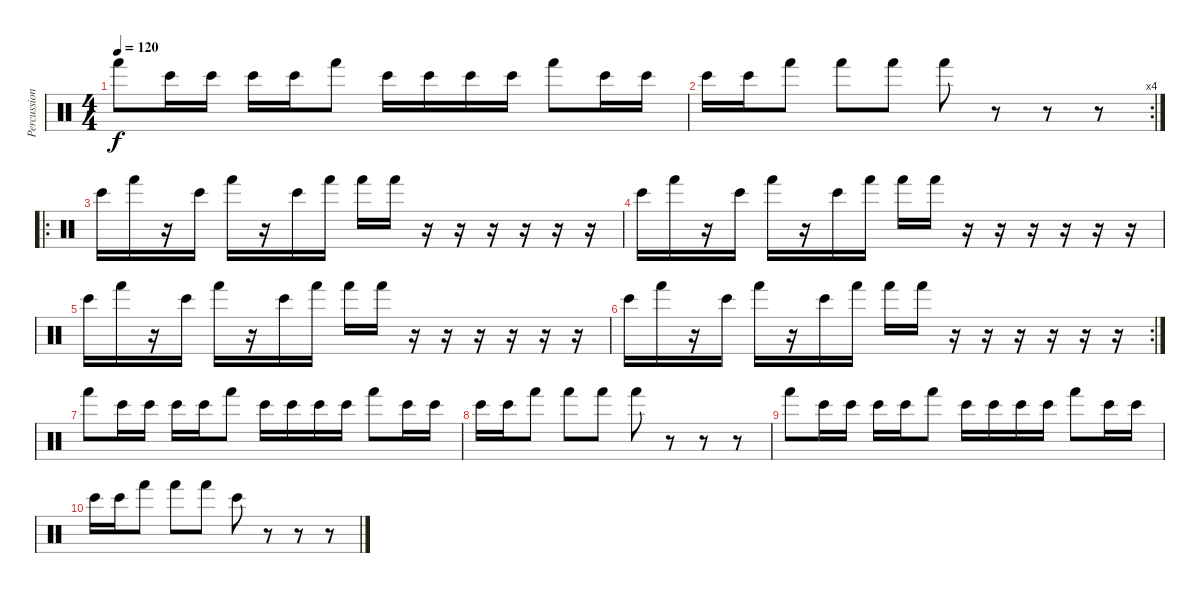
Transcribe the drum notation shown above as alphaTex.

\track ("Percussions" "Percussion") {instrument percussion}
\staff {score}
\articulation defaults
\ts (4 4)
\tempo 120
\clef neutral
\ks c "Hand (hit)".8{dy f} "Bongo High (hit)".16 "Bongo High (hit)".16 "Bongo High (hit)".16 "Bongo High (hit)".16 "Hand (hit)".8 "Bongo High (hit)".16 "Bongo High (hit)".16 "Bongo High (hit)".16 "Bongo High (hit)".16 "Hand (hit)".8 "Bongo High (hit)".16 "Bongo High (hit)".16
|
\rc 4 "Bongo High (hit)".16 "Bongo High (hit)".16 "Hand (hit)".8 "Hand (hit)".8 "Hand (hit)".8 "Hand (hit)".8
r.8 r.8 r.8 |
\ro "Bongo High (hit)".16 "Hand (hit)".16
r.16 "Bongo High (hit)".16 "Hand (hit)".16 r.16 "Bongo High (hit)".16 "Hand (hit)".16 "Hand (hit)".16 "Hand (hit)".16 r.16 r.16 r.16 r.16 r.16 r.16 |
"Bongo High (hit)".16 "Hand (hit)".16 r.16 "Bongo High (hit)".16 "Hand (hit)".16 r.16 "Bongo High (hit)".16 "Hand (hit)".16 "Hand (hit)".16 "Hand (hit)".16 r.16 r.16 r.16 r.16 r.16 r.16 |
"Bongo High (hit)".16 "Hand (hit)".16 r.16 "Bongo High (hit)".16 "Hand (hit)".16 r.16 "Bongo High (hit)".16 "Hand (hit)".16 "Hand (hit)".16 "Hand (hit)".16 r.16 r.16 r.16 r.16 r.16 r.16 |
\rc 2 "Bongo High (hit)".16 "Hand (hit)".16
r.16 "Bongo High (hit)".16 "Hand (hit)".16 r.16 "Bongo High (hit)".16 "Hand (hit)".16 "Hand (hit)".16 "Hand (hit)".16 r.16 r.16 r.16 r.16 r.16 r.16 |
"Hand (hit)".8 "Bongo High (hit)".16 "Bongo High (hit)".16 "Bongo High (hit)".16 "Bongo High (hit)".16 "Hand (hit)".8 "Bongo High (hit)".16 "Bongo High (hit)".16 "Bongo High (hit)".16 "Bongo High (hit)".16 "Hand (hit)".8 "Bongo High (hit)".16 "Bongo High (hit)".16 |
"Bongo High (hit)".16 "Bongo High (hit)".16 "Hand (hit)".8 "Hand (hit)".8 "Hand (hit)".8 "Hand (hit)".8 r.8 r.8 r.8 |
"Hand (hit)".8 "Bongo High (hit)".16 "Bongo High (hit)".16 "Bongo High (hit)".16 "Bongo High (hit)".16 "Hand (hit)".8 "Bongo High (hit)".16 "Bongo High (hit)".16 "Bongo High (hit)".16 "Bongo High (hit)".16 "Hand (hit)".8 "Bongo High (hit)".16 "Bongo High (hit)".16 |
"Bongo High (hit)".16 "Bongo High (hit)".16 "Hand (hit)".8 "Hand (hit)".8 "Hand (hit)".8 "Bongo High (hit)".8 r.8 r.8 r.8
